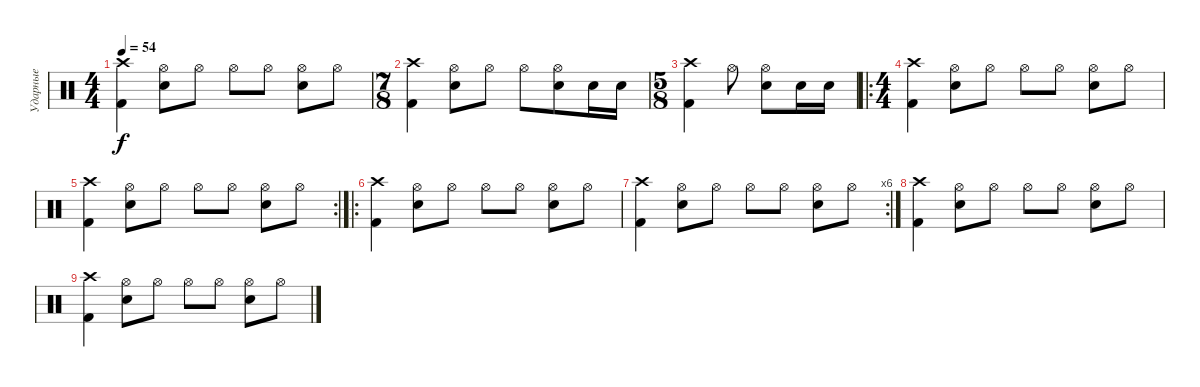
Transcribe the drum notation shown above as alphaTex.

\track ("Ударные" "Ударные") {instrument percussion}
\staff {score}
\articulation defaults
\ts (4 4)
\tempo 54
\clef neutral
\ks c
("Crash high (hit)" "Kick (hit) 2").4{dy f} ("Hi-Hat (open)" "Snare (hit) 2").8 "Hi-Hat (open)".8 "Hi-Hat (open)".8 "Hi-Hat (open)".8 ("Hi-Hat (open)" "Snare (hit) 2").8 "Hi-Hat (open)".8 |
\ts (7 8)
("Crash high (hit)" "Kick (hit) 2").4 ("Hi-Hat (open)" "Snare (hit) 2").8 "Hi-Hat (open)".8 "Hi-Hat (open)".8 ("Hi-Hat (open)" "Snare (hit) 2").8 "Snare (hit) 2".16 "Snare (hit) 2".16 |
\ts (5 8)
("Crash high (hit)" "Kick (hit) 2").4 "Hi-Hat (open)".8 ("Hi-Hat (open)" "Snare (hit) 2").8 "Snare (hit) 2".16 "Snare (hit) 2".16 |
\ro
\ts (4 4)
("Crash high (hit)" "Kick (hit) 2").4 ("Hi-Hat (open)" "Snare (hit) 2").8 "Hi-Hat (open)".8 "Hi-Hat (open)".8 "Hi-Hat (open)".8 ("Hi-Hat (open)" "Snare (hit) 2").8 "Hi-Hat (open)".8 |
\rc 2
("Crash high (hit)" "Kick (hit) 2").4 ("Hi-Hat (open)" "Snare (hit) 2").8 "Hi-Hat (open)".8 "Hi-Hat (open)".8 "Hi-Hat (open)".8 ("Hi-Hat (open)" "Snare (hit) 2").8 "Hi-Hat (open)".8 |
\ro
("Crash high (hit)" "Kick (hit) 2").4 ("Hi-Hat (open)" "Snare (hit) 2").8 "Hi-Hat (open)".8 "Hi-Hat (open)".8 "Hi-Hat (open)".8 ("Hi-Hat (open)" "Snare (hit) 2").8 "Hi-Hat (open)".8 |
\rc 6
("Crash high (hit)" "Kick (hit) 2").4 ("Hi-Hat (open)" "Snare (hit) 2").8 "Hi-Hat (open)".8 "Hi-Hat (open)".8 "Hi-Hat (open)".8 ("Hi-Hat (open)" "Snare (hit) 2").8 "Hi-Hat (open)".8 |
("Crash high (hit)" "Kick (hit) 2").4{volume 0} ("Hi-Hat (open)" "Snare (hit) 2").8 "Hi-Hat (open)".8 "Hi-Hat (open)".8 "Hi-Hat (open)".8 ("Hi-Hat (open)" "Snare (hit) 2").8 "Hi-Hat (open)".8 |
("Crash high (hit)" "Kick (hit) 2").4 ("Hi-Hat (open)" "Snare (hit) 2").8 "Hi-Hat (open)".8 "Hi-Hat (open)".8 "Hi-Hat (open)".8 ("Hi-Hat (open)" "Snare (hit) 2").8 "Hi-Hat (open)".8
